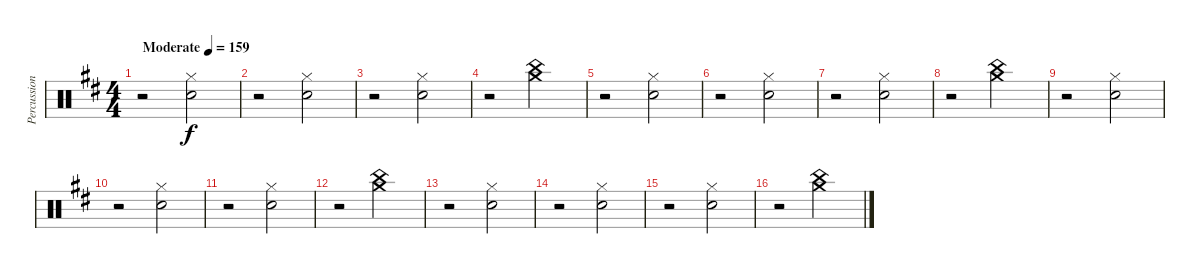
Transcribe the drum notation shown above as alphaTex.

\track ("Percussion" "Percussion") {instrument percussion}
\staff {score}
\articulation defaults
\ts (4 4)
\tempo (159 "Moderate")
\clef neutral
\ks d
r.2{dy f} ("Electric Snare (hit)" "Hi-Hat (closed)").2 |
r.2 ("Electric Snare (hit)" "Hi-Hat (closed)").2 |
r.2 ("Electric Snare (hit)" "Hi-Hat (closed)").2 |
r.2 ("China (hit)" "Crash medium (hit)").2 |
r.2 ("Electric Snare (hit)" "Hi-Hat (closed)").2 |
r.2 ("Electric Snare (hit)" "Hi-Hat (closed)").2 |
r.2 ("Electric Snare (hit)" "Hi-Hat (closed)").2 |
r.2 ("China (hit)" "Crash medium (hit)").2 |
r.2 ("Electric Snare (hit)" "Hi-Hat (closed)").2 |
r.2 ("Electric Snare (hit)" "Hi-Hat (closed)").2 |
r.2 ("Electric Snare (hit)" "Hi-Hat (closed)").2 |
r.2 ("China (hit)" "Crash medium (hit)").2 |
r.2 ("Electric Snare (hit)" "Hi-Hat (closed)").2 |
r.2 ("Electric Snare (hit)" "Hi-Hat (closed)").2 |
r.2 ("Electric Snare (hit)" "Hi-Hat (closed)").2 |
r.2 ("China (hit)" "Crash medium (hit)").2
